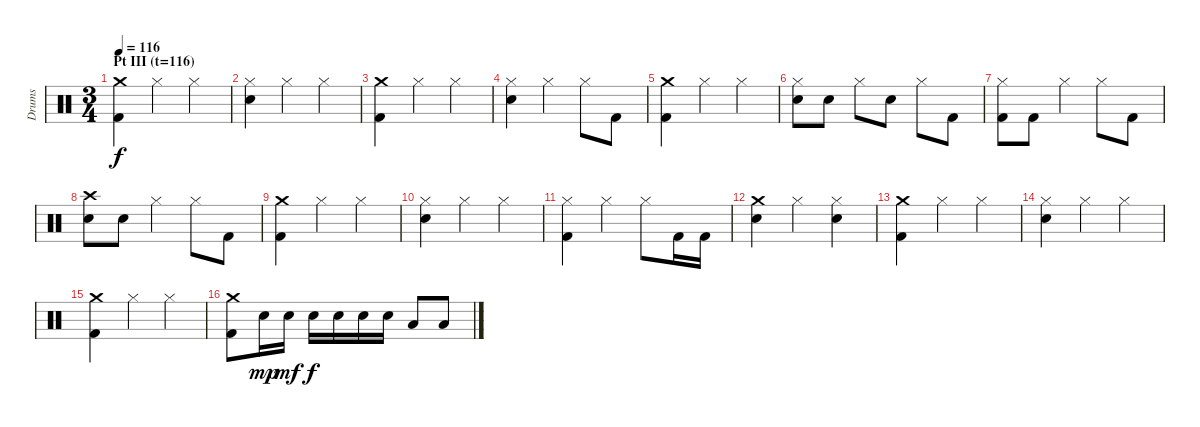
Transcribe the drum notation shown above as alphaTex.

\track ("Drums" "Drums") {instrument percussion}
\staff {score}
\articulation defaults
\ts (3 4)
\section ("" "Pt III (t=116)")
\tempo 116
\clef neutral
\ks c
("Kick (hit) 2" "Crash medium (hit)").4{dy f} "Hi-Hat (closed)".4 "Hi-Hat (closed)".4 |
("Electric Snare (hit)" "Hi-Hat (closed)").4 "Hi-Hat (closed)".4 "Hi-Hat (closed)".4 |
("Kick (hit) 2" "Crash medium (hit)").4 "Hi-Hat (closed)".4 "Hi-Hat (closed)".4 |
("Electric Snare (hit)" "Hi-Hat (closed)").4 "Hi-Hat (closed)".4 "Hi-Hat (closed)".8 "Kick (hit) 2".8 |
("Kick (hit) 2" "Crash medium (hit)").4 "Hi-Hat (closed)".4 "Hi-Hat (closed)".4 |
("Electric Snare (hit)" "Hi-Hat (closed)").8 "Electric Snare (hit)".8 "Hi-Hat (closed)".8 "Electric Snare (hit)".8 "Hi-Hat (closed)".8 "Kick (hit) 2".8 |
("Kick (hit) 2" "Hi-Hat (closed)").8 "Kick (hit) 2".8 "Hi-Hat (closed)".4 "Hi-Hat (closed)".8 "Kick (hit) 2".8 |
("Electric Snare (hit)" "Crash high (hit)").8 "Electric Snare (hit)".8 "Hi-Hat (closed)".4 "Hi-Hat (closed)".8 "Kick (hit) 2".8 |
("Kick (hit) 2" "Crash medium (hit)").4 "Hi-Hat (closed)".4 "Hi-Hat (closed)".4 |
("Electric Snare (hit)" "Hi-Hat (closed)").4 "Hi-Hat (closed)".4 "Hi-Hat (closed)".4 |
("Kick (hit) 2" "Hi-Hat (closed)").4 "Hi-Hat (closed)".4 "Hi-Hat (closed)".8 "Kick (hit) 2".16 "Kick (hit) 2".16 |
("Electric Snare (hit)" "Crash medium (hit)").4 "Hi-Hat (closed)".4 ("Electric Snare (hit)" "Hi-Hat (closed)").4 |
("Kick (hit) 2" "Crash medium (hit)").4 "Hi-Hat (closed)".4 "Hi-Hat (closed)".4 |
("Electric Snare (hit)" "Hi-Hat (closed)").4 "Hi-Hat (closed)".4 "Hi-Hat (closed)".4 |
("Kick (hit) 2" "Crash medium (hit)").4 "Hi-Hat (closed)".4 "Hi-Hat (closed)".4 |
("Kick (hit) 2" "Crash medium (hit)").8 "Electric Snare (hit)".16{dy mp} "Electric Snare (hit)".16{dy mf} "Electric Snare (hit)".16{dy f} "Electric Snare (hit)".16 "Electric Snare (hit)".16 "Electric Snare (hit)".16 "Low Tom (hit)".8 "Low Tom (hit)".8
